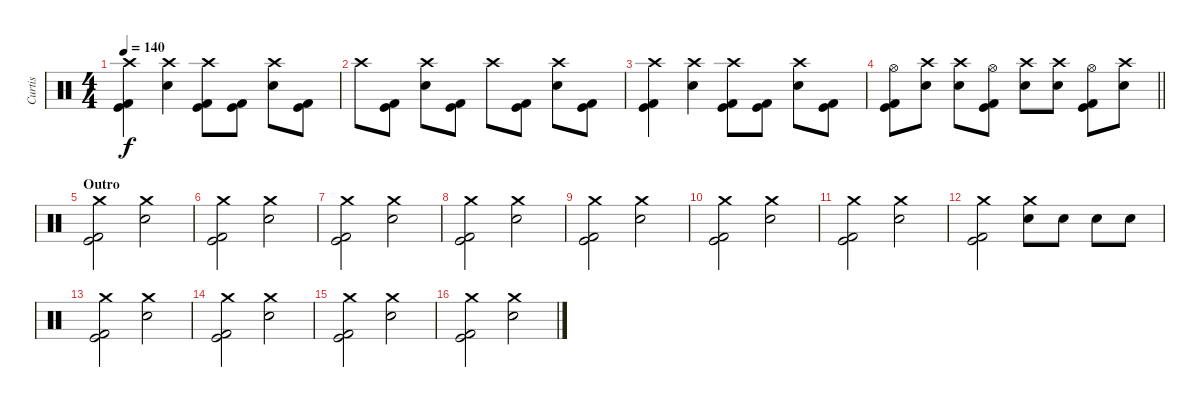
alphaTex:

\track ("Curtis" "Curtis") {instrument percussion}
\staff {score}
\articulation defaults
\ts (4 4)
\tempo 140
\clef neutral
\ks c
("Crash high (hit)" "Kick (hit) 2" "Kick (hit)").4{dy f} ("Crash high (hit)" "Electric Snare (hit)").4 ("Crash high (hit)" "Kick (hit) 2" "Kick (hit)").8 ("Kick (hit) 2" "Kick (hit)").8 ("Crash high (hit)" "Electric Snare (hit)").8 ("Kick (hit) 2" "Kick (hit)").8 |
"Crash high (hit)".8 ("Kick (hit) 2" "Kick (hit)").8 ("Crash high (hit)" "Electric Snare (hit)").8 ("Kick (hit) 2" "Kick (hit)").8 "Crash high (hit)".8 ("Kick (hit) 2" "Kick (hit)").8 ("Crash high (hit)" "Electric Snare (hit)").8 ("Kick (hit) 2" "Kick (hit)").8 |
("Crash high (hit)" "Kick (hit) 2" "Kick (hit)").4 ("Crash high (hit)" "Electric Snare (hit)").4 ("Crash high (hit)" "Kick (hit) 2" "Kick (hit)").8 ("Kick (hit) 2" "Kick (hit)").8 ("Crash high (hit)" "Electric Snare (hit)").8 ("Kick (hit) 2" "Kick (hit)").8 |
\barLineRight lightlight
("Hi-Hat (open)" "Kick (hit) 2" "Kick (hit)").8 ("Crash high (hit)" "Electric Snare (hit)").8 ("Crash high (hit)" "Electric Snare (hit)").8 ("Hi-Hat (open)" "Kick (hit) 2" "Kick (hit)").8 ("Crash high (hit)" "Electric Snare (hit)").8 ("Crash high (hit)" "Electric Snare (hit)").8 ("Hi-Hat (open)" "Kick (hit) 2" "Kick (hit)").8 ("Crash high (hit)" "Electric Snare (hit)").8 |
\section ("" "Outro")
("Crash medium (hit)" "Kick (hit) 2" "Kick (hit)").2 ("Crash medium (hit)" "Electric Snare (hit)").2 |
("Crash medium (hit)" "Kick (hit) 2" "Kick (hit)").2 ("Crash medium (hit)" "Electric Snare (hit)").2 |
("Crash medium (hit)" "Kick (hit) 2" "Kick (hit)").2 ("Crash medium (hit)" "Electric Snare (hit)").2 |
("Crash medium (hit)" "Kick (hit) 2" "Kick (hit)").2 ("Crash medium (hit)" "Electric Snare (hit)").2 |
("Crash medium (hit)" "Kick (hit) 2" "Kick (hit)").2 ("Crash medium (hit)" "Electric Snare (hit)").2 |
("Crash medium (hit)" "Kick (hit) 2" "Kick (hit)").2 ("Crash medium (hit)" "Electric Snare (hit)").2 |
("Crash medium (hit)" "Kick (hit) 2" "Kick (hit)").2 ("Crash medium (hit)" "Electric Snare (hit)").2 |
("Crash medium (hit)" "Kick (hit) 2" "Kick (hit)").2 ("Crash medium (hit)" "Electric Snare (hit)").8 "Electric Snare (hit)".8 "Electric Snare (hit)".8 "Electric Snare (hit)".8 |
("Crash medium (hit)" "Kick (hit) 2" "Kick (hit)").2 ("Crash medium (hit)" "Electric Snare (hit)").2 |
("Crash medium (hit)" "Kick (hit) 2" "Kick (hit)").2 ("Crash medium (hit)" "Electric Snare (hit)").2 |
("Crash medium (hit)" "Kick (hit) 2" "Kick (hit)").2 ("Crash medium (hit)" "Electric Snare (hit)").2 |
("Crash medium (hit)" "Kick (hit) 2" "Kick (hit)").2 ("Crash medium (hit)" "Electric Snare (hit)").2
